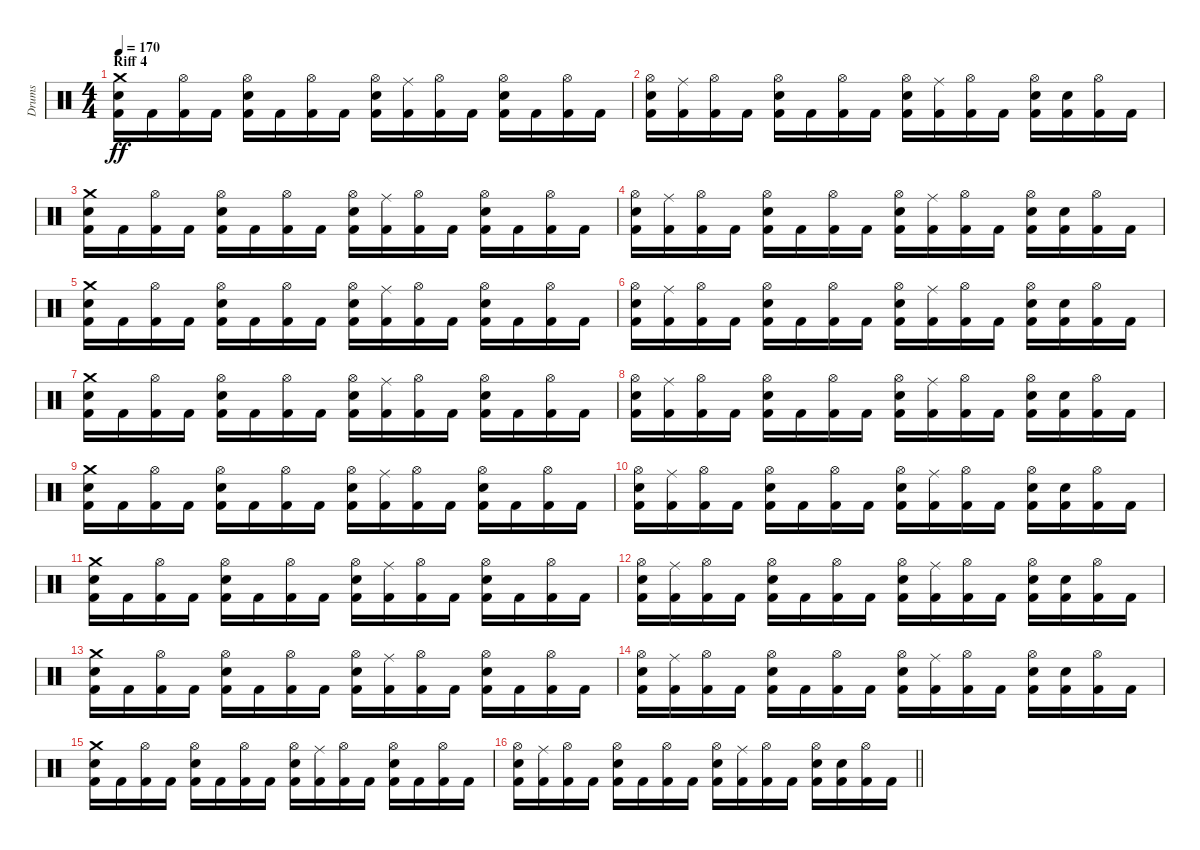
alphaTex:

\track ("Drums" "Drums") {instrument percussion}
\staff {score}
\articulation defaults
\ts (4 4)
\section ("" "Riff 4")
\tempo 170
\clef neutral
\ks c
("Crash medium (hit)" "Kick (hit) 2" "Snare (hit) 2").16{dy ff} "Kick (hit) 2".16 ("Kick (hit) 2" "Hi-Hat (open)").16 "Kick (hit) 2".16 ("Kick (hit) 2" "Snare (hit) 2" "Hi-Hat (open)").16 "Kick (hit) 2".16 ("Kick (hit) 2" "Hi-Hat (open)").16 "Kick (hit) 2".16 ("Kick (hit) 2" "Snare (hit) 2" "Hi-Hat (open)").16 ("Kick (hit) 2" "Ride (middle)").16 ("Kick (hit) 2" "Hi-Hat (open)").16 "Kick (hit) 2".16 ("Kick (hit) 2" "Snare (hit) 2" "Hi-Hat (open)").16 "Kick (hit) 2".16 ("Kick (hit) 2" "Hi-Hat (open)").16 "Kick (hit) 2".16 |
("Kick (hit) 2" "Snare (hit) 2" "Hi-Hat (open)").16 ("Kick (hit) 2" "Ride (middle)").16 ("Kick (hit) 2" "Hi-Hat (open)").16 "Kick (hit) 2".16 ("Kick (hit) 2" "Snare (hit) 2" "Hi-Hat (open)").16 "Kick (hit) 2".16 ("Kick (hit) 2" "Hi-Hat (open)").16 "Kick (hit) 2".16 ("Kick (hit) 2" "Snare (hit) 2" "Hi-Hat (open)").16 ("Kick (hit) 2" "Ride (middle)").16 ("Kick (hit) 2" "Hi-Hat (open)").16 "Kick (hit) 2".16 ("Kick (hit) 2" "Snare (hit) 2" "Hi-Hat (open)").16 ("Kick (hit) 2" "Snare (hit) 2").16 ("Kick (hit) 2" "Hi-Hat (open)").16 "Kick (hit) 2".16 |
("Crash medium (hit)" "Kick (hit) 2" "Snare (hit) 2").16 "Kick (hit) 2".16 ("Kick (hit) 2" "Hi-Hat (open)").16 "Kick (hit) 2".16 ("Kick (hit) 2" "Snare (hit) 2" "Hi-Hat (open)").16 "Kick (hit) 2".16 ("Kick (hit) 2" "Hi-Hat (open)").16 "Kick (hit) 2".16 ("Kick (hit) 2" "Snare (hit) 2" "Hi-Hat (open)").16 ("Kick (hit) 2" "Ride (middle)").16 ("Kick (hit) 2" "Hi-Hat (open)").16 "Kick (hit) 2".16 ("Kick (hit) 2" "Snare (hit) 2" "Hi-Hat (open)").16 "Kick (hit) 2".16 ("Kick (hit) 2" "Hi-Hat (open)").16 "Kick (hit) 2".16 |
("Kick (hit) 2" "Snare (hit) 2" "Hi-Hat (open)").16 ("Kick (hit) 2" "Ride (middle)").16 ("Kick (hit) 2" "Hi-Hat (open)").16 "Kick (hit) 2".16 ("Kick (hit) 2" "Snare (hit) 2" "Hi-Hat (open)").16 "Kick (hit) 2".16 ("Kick (hit) 2" "Hi-Hat (open)").16 "Kick (hit) 2".16 ("Kick (hit) 2" "Snare (hit) 2" "Hi-Hat (open)").16 ("Kick (hit) 2" "Ride (middle)").16 ("Kick (hit) 2" "Hi-Hat (open)").16 "Kick (hit) 2".16 ("Kick (hit) 2" "Snare (hit) 2" "Hi-Hat (open)").16 ("Kick (hit) 2" "Snare (hit) 2").16 ("Kick (hit) 2" "Hi-Hat (open)").16 "Kick (hit) 2".16 |
("Crash medium (hit)" "Kick (hit) 2" "Snare (hit) 2").16 "Kick (hit) 2".16 ("Kick (hit) 2" "Hi-Hat (open)").16 "Kick (hit) 2".16 ("Kick (hit) 2" "Snare (hit) 2" "Hi-Hat (open)").16 "Kick (hit) 2".16 ("Kick (hit) 2" "Hi-Hat (open)").16 "Kick (hit) 2".16 ("Kick (hit) 2" "Snare (hit) 2" "Hi-Hat (open)").16 ("Kick (hit) 2" "Ride (middle)").16 ("Kick (hit) 2" "Hi-Hat (open)").16 "Kick (hit) 2".16 ("Kick (hit) 2" "Snare (hit) 2" "Hi-Hat (open)").16 "Kick (hit) 2".16 ("Kick (hit) 2" "Hi-Hat (open)").16 "Kick (hit) 2".16 |
("Kick (hit) 2" "Snare (hit) 2" "Hi-Hat (open)").16 ("Kick (hit) 2" "Ride (middle)").16 ("Kick (hit) 2" "Hi-Hat (open)").16 "Kick (hit) 2".16 ("Kick (hit) 2" "Snare (hit) 2" "Hi-Hat (open)").16 "Kick (hit) 2".16 ("Kick (hit) 2" "Hi-Hat (open)").16 "Kick (hit) 2".16 ("Kick (hit) 2" "Snare (hit) 2" "Hi-Hat (open)").16 ("Kick (hit) 2" "Ride (middle)").16 ("Kick (hit) 2" "Hi-Hat (open)").16 "Kick (hit) 2".16 ("Kick (hit) 2" "Snare (hit) 2" "Hi-Hat (open)").16 ("Kick (hit) 2" "Snare (hit) 2").16 ("Kick (hit) 2" "Hi-Hat (open)").16 "Kick (hit) 2".16 |
("Crash medium (hit)" "Kick (hit) 2" "Snare (hit) 2").16 "Kick (hit) 2".16 ("Kick (hit) 2" "Hi-Hat (open)").16 "Kick (hit) 2".16 ("Kick (hit) 2" "Snare (hit) 2" "Hi-Hat (open)").16 "Kick (hit) 2".16 ("Kick (hit) 2" "Hi-Hat (open)").16 "Kick (hit) 2".16 ("Kick (hit) 2" "Snare (hit) 2" "Hi-Hat (open)").16 ("Kick (hit) 2" "Ride (middle)").16 ("Kick (hit) 2" "Hi-Hat (open)").16 "Kick (hit) 2".16 ("Kick (hit) 2" "Snare (hit) 2" "Hi-Hat (open)").16 "Kick (hit) 2".16 ("Kick (hit) 2" "Hi-Hat (open)").16 "Kick (hit) 2".16 |
("Kick (hit) 2" "Snare (hit) 2" "Hi-Hat (open)").16 ("Kick (hit) 2" "Ride (middle)").16 ("Kick (hit) 2" "Hi-Hat (open)").16 "Kick (hit) 2".16 ("Kick (hit) 2" "Snare (hit) 2" "Hi-Hat (open)").16 "Kick (hit) 2".16 ("Kick (hit) 2" "Hi-Hat (open)").16 "Kick (hit) 2".16 ("Kick (hit) 2" "Snare (hit) 2" "Hi-Hat (open)").16 ("Kick (hit) 2" "Ride (middle)").16 ("Kick (hit) 2" "Hi-Hat (open)").16 "Kick (hit) 2".16 ("Kick (hit) 2" "Snare (hit) 2" "Hi-Hat (open)").16 ("Kick (hit) 2" "Snare (hit) 2").16 ("Kick (hit) 2" "Hi-Hat (open)").16 "Kick (hit) 2".16 |
("Crash medium (hit)" "Kick (hit) 2" "Snare (hit) 2").16 "Kick (hit) 2".16 ("Kick (hit) 2" "Hi-Hat (open)").16 "Kick (hit) 2".16 ("Kick (hit) 2" "Snare (hit) 2" "Hi-Hat (open)").16 "Kick (hit) 2".16 ("Kick (hit) 2" "Hi-Hat (open)").16 "Kick (hit) 2".16 ("Kick (hit) 2" "Snare (hit) 2" "Hi-Hat (open)").16 ("Kick (hit) 2" "Ride (middle)").16 ("Kick (hit) 2" "Hi-Hat (open)").16 "Kick (hit) 2".16 ("Kick (hit) 2" "Snare (hit) 2" "Hi-Hat (open)").16 "Kick (hit) 2".16 ("Kick (hit) 2" "Hi-Hat (open)").16 "Kick (hit) 2".16 |
("Kick (hit) 2" "Snare (hit) 2" "Hi-Hat (open)").16 ("Kick (hit) 2" "Ride (middle)").16 ("Kick (hit) 2" "Hi-Hat (open)").16 "Kick (hit) 2".16 ("Kick (hit) 2" "Snare (hit) 2" "Hi-Hat (open)").16 "Kick (hit) 2".16 ("Kick (hit) 2" "Hi-Hat (open)").16 "Kick (hit) 2".16 ("Kick (hit) 2" "Snare (hit) 2" "Hi-Hat (open)").16 ("Kick (hit) 2" "Ride (middle)").16 ("Kick (hit) 2" "Hi-Hat (open)").16 "Kick (hit) 2".16 ("Kick (hit) 2" "Snare (hit) 2" "Hi-Hat (open)").16 ("Kick (hit) 2" "Snare (hit) 2").16 ("Kick (hit) 2" "Hi-Hat (open)").16 "Kick (hit) 2".16 |
("Crash medium (hit)" "Kick (hit) 2" "Snare (hit) 2").16 "Kick (hit) 2".16 ("Kick (hit) 2" "Hi-Hat (open)").16 "Kick (hit) 2".16 ("Kick (hit) 2" "Snare (hit) 2" "Hi-Hat (open)").16 "Kick (hit) 2".16 ("Kick (hit) 2" "Hi-Hat (open)").16 "Kick (hit) 2".16 ("Kick (hit) 2" "Snare (hit) 2" "Hi-Hat (open)").16 ("Kick (hit) 2" "Ride (middle)").16 ("Kick (hit) 2" "Hi-Hat (open)").16 "Kick (hit) 2".16 ("Kick (hit) 2" "Snare (hit) 2" "Hi-Hat (open)").16 "Kick (hit) 2".16 ("Kick (hit) 2" "Hi-Hat (open)").16 "Kick (hit) 2".16 |
("Kick (hit) 2" "Snare (hit) 2" "Hi-Hat (open)").16 ("Kick (hit) 2" "Ride (middle)").16 ("Kick (hit) 2" "Hi-Hat (open)").16 "Kick (hit) 2".16 ("Kick (hit) 2" "Snare (hit) 2" "Hi-Hat (open)").16 "Kick (hit) 2".16 ("Kick (hit) 2" "Hi-Hat (open)").16 "Kick (hit) 2".16 ("Kick (hit) 2" "Snare (hit) 2" "Hi-Hat (open)").16 ("Kick (hit) 2" "Ride (middle)").16 ("Kick (hit) 2" "Hi-Hat (open)").16 "Kick (hit) 2".16 ("Kick (hit) 2" "Snare (hit) 2" "Hi-Hat (open)").16 ("Kick (hit) 2" "Snare (hit) 2").16 ("Kick (hit) 2" "Hi-Hat (open)").16 "Kick (hit) 2".16 |
("Crash medium (hit)" "Kick (hit) 2" "Snare (hit) 2").16 "Kick (hit) 2".16 ("Kick (hit) 2" "Hi-Hat (open)").16 "Kick (hit) 2".16 ("Kick (hit) 2" "Snare (hit) 2" "Hi-Hat (open)").16 "Kick (hit) 2".16 ("Kick (hit) 2" "Hi-Hat (open)").16 "Kick (hit) 2".16 ("Kick (hit) 2" "Snare (hit) 2" "Hi-Hat (open)").16 ("Kick (hit) 2" "Ride (middle)").16 ("Kick (hit) 2" "Hi-Hat (open)").16 "Kick (hit) 2".16 ("Kick (hit) 2" "Snare (hit) 2" "Hi-Hat (open)").16 "Kick (hit) 2".16 ("Kick (hit) 2" "Hi-Hat (open)").16 "Kick (hit) 2".16 |
("Kick (hit) 2" "Snare (hit) 2" "Hi-Hat (open)").16 ("Kick (hit) 2" "Ride (middle)").16 ("Kick (hit) 2" "Hi-Hat (open)").16 "Kick (hit) 2".16 ("Kick (hit) 2" "Snare (hit) 2" "Hi-Hat (open)").16 "Kick (hit) 2".16 ("Kick (hit) 2" "Hi-Hat (open)").16 "Kick (hit) 2".16 ("Kick (hit) 2" "Snare (hit) 2" "Hi-Hat (open)").16 ("Kick (hit) 2" "Ride (middle)").16 ("Kick (hit) 2" "Hi-Hat (open)").16 "Kick (hit) 2".16 ("Kick (hit) 2" "Snare (hit) 2" "Hi-Hat (open)").16 ("Kick (hit) 2" "Snare (hit) 2").16 ("Kick (hit) 2" "Hi-Hat (open)").16 "Kick (hit) 2".16 |
("Crash medium (hit)" "Kick (hit) 2" "Snare (hit) 2").16 "Kick (hit) 2".16 ("Kick (hit) 2" "Hi-Hat (open)").16 "Kick (hit) 2".16 ("Kick (hit) 2" "Snare (hit) 2" "Hi-Hat (open)").16 "Kick (hit) 2".16 ("Kick (hit) 2" "Hi-Hat (open)").16 "Kick (hit) 2".16 ("Kick (hit) 2" "Snare (hit) 2" "Hi-Hat (open)").16 ("Kick (hit) 2" "Ride (middle)").16 ("Kick (hit) 2" "Hi-Hat (open)").16 "Kick (hit) 2".16 ("Kick (hit) 2" "Snare (hit) 2" "Hi-Hat (open)").16 "Kick (hit) 2".16 ("Kick (hit) 2" "Hi-Hat (open)").16 "Kick (hit) 2".16 |
\barLineRight lightlight
("Kick (hit) 2" "Snare (hit) 2" "Hi-Hat (open)").16 ("Kick (hit) 2" "Ride (middle)").16 ("Kick (hit) 2" "Hi-Hat (open)").16 "Kick (hit) 2".16 ("Kick (hit) 2" "Snare (hit) 2" "Hi-Hat (open)").16 "Kick (hit) 2".16 ("Kick (hit) 2" "Hi-Hat (open)").16 "Kick (hit) 2".16 ("Kick (hit) 2" "Snare (hit) 2" "Hi-Hat (open)").16 ("Kick (hit) 2" "Ride (middle)").16 ("Kick (hit) 2" "Hi-Hat (open)").16 "Kick (hit) 2".16 ("Kick (hit) 2" "Snare (hit) 2" "Hi-Hat (open)").16 ("Kick (hit) 2" "Snare (hit) 2").16 ("Kick (hit) 2" "Hi-Hat (open)").16 "Kick (hit) 2".16
